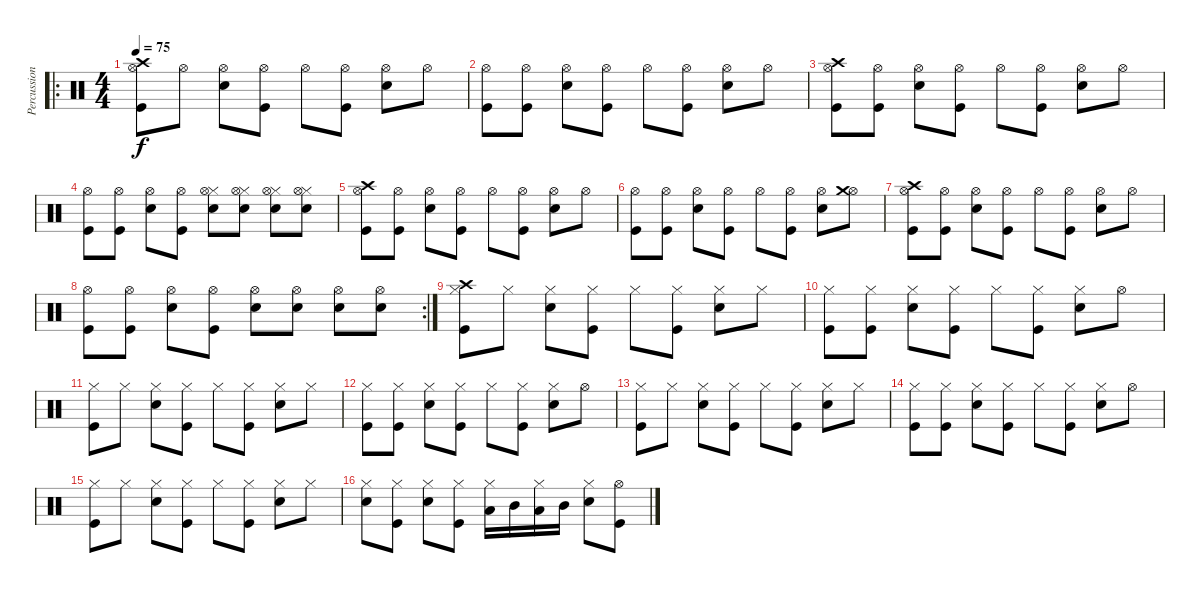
\track ("Percussion" "Percussion") {instrument percussion}
\staff {score}
\articulation defaults
\ro
\ts (4 4)
\tempo 75
\clef neutral
\ks c
("Hi-Hat (open)" "Kick (hit)" "Crash high (hit)").8{dy f} "Hi-Hat (open)".8 ("Hi-Hat (open)" "Electric Snare (hit)").8 ("Hi-Hat (open)" "Kick (hit)").8 "Hi-Hat (open)".8 ("Hi-Hat (open)" "Kick (hit)").8 ("Hi-Hat (open)" "Electric Snare (hit)").8 "Hi-Hat (open)".8 |
("Hi-Hat (open)" "Kick (hit)").8 ("Hi-Hat (open)" "Kick (hit)").8 ("Hi-Hat (open)" "Electric Snare (hit)").8 ("Hi-Hat (open)" "Kick (hit)").8 "Hi-Hat (open)".8 ("Hi-Hat (open)" "Kick (hit)").8 ("Hi-Hat (open)" "Electric Snare (hit)").8 "Hi-Hat (open)".8 |
("Hi-Hat (open)" "Kick (hit)" "Crash high (hit)").8 ("Hi-Hat (open)" "Kick (hit)").8 ("Hi-Hat (open)" "Electric Snare (hit)").8 ("Hi-Hat (open)" "Kick (hit)").8 "Hi-Hat (open)".8 ("Hi-Hat (open)" "Kick (hit)").8 ("Hi-Hat (open)" "Electric Snare (hit)").8 "Hi-Hat (open)".8 |
("Hi-Hat (open)" "Kick (hit)").8 ("Hi-Hat (open)" "Kick (hit)").8 ("Hi-Hat (open)" "Electric Snare (hit)").8 ("Hi-Hat (open)" "Kick (hit)").8 ("Hi-Hat (closed)" "Electric Snare (hit)" "Hi-Hat (open)").8 ("Hi-Hat (closed)" "Electric Snare (hit)" "Hi-Hat (open)").8 ("Hi-Hat (closed)" "Electric Snare (hit)" "Hi-Hat (open)").8 ("Hi-Hat (closed)" "Electric Snare (hit)" "Hi-Hat (open)").8 |
("Hi-Hat (open)" "Kick (hit)" "Crash high (hit)").8 ("Hi-Hat (open)" "Kick (hit)").8 ("Hi-Hat (open)" "Electric Snare (hit)").8 ("Hi-Hat (open)" "Kick (hit)").8 "Hi-Hat (open)".8 ("Hi-Hat (open)" "Kick (hit)").8 ("Hi-Hat (open)" "Electric Snare (hit)").8 "Hi-Hat (open)".8 |
("Hi-Hat (open)" "Kick (hit)").8 ("Hi-Hat (open)" "Kick (hit)").8 ("Hi-Hat (open)" "Electric Snare (hit)").8 ("Hi-Hat (open)" "Kick (hit)").8 "Hi-Hat (open)".8 ("Hi-Hat (open)" "Kick (hit)").8 ("Hi-Hat (open)" "Electric Snare (hit)").8 ("Hi-Hat (open)" "Crash medium (hit)").8 |
("Hi-Hat (open)" "Kick (hit)" "Crash high (hit)").8 ("Hi-Hat (open)" "Kick (hit)").8 ("Hi-Hat (open)" "Electric Snare (hit)").8 ("Hi-Hat (open)" "Kick (hit)").8 "Hi-Hat (open)".8 ("Hi-Hat (open)" "Kick (hit)").8 ("Hi-Hat (open)" "Electric Snare (hit)").8 "Hi-Hat (open)".8 |
\rc 2
("Hi-Hat (open)" "Kick (hit)").8 ("Hi-Hat (open)" "Kick (hit)").8 ("Hi-Hat (open)" "Electric Snare (hit)").8 ("Hi-Hat (open)" "Kick (hit)").8 ("Hi-Hat (open)" "Electric Snare (hit)").8 ("Hi-Hat (open)" "Electric Snare (hit)").8 ("Hi-Hat (open)" "Electric Snare (hit)").8 ("Hi-Hat (open)" "Electric Snare (hit)").8 |
("Hi-Hat (closed)" "Kick (hit)" "Crash high (hit)").8 "Hi-Hat (closed)".8 ("Hi-Hat (closed)" "Electric Snare (hit)").8 ("Hi-Hat (closed)" "Kick (hit)").8 "Hi-Hat (closed)".8 ("Hi-Hat (closed)" "Kick (hit)").8 ("Hi-Hat (closed)" "Electric Snare (hit)").8 "Hi-Hat (closed)".8 |
("Hi-Hat (closed)" "Kick (hit)").8 ("Hi-Hat (closed)" "Kick (hit)").8 ("Hi-Hat (closed)" "Electric Snare (hit)").8 ("Hi-Hat (closed)" "Kick (hit)").8 "Hi-Hat (closed)".8 ("Hi-Hat (closed)" "Kick (hit)").8 ("Hi-Hat (closed)" "Electric Snare (hit)").8 "Hi-Hat (open)".8 |
("Hi-Hat (closed)" "Kick (hit)").8 "Hi-Hat (closed)".8 ("Hi-Hat (closed)" "Electric Snare (hit)").8 ("Hi-Hat (closed)" "Kick (hit)").8 "Hi-Hat (closed)".8 ("Hi-Hat (closed)" "Kick (hit)").8 ("Hi-Hat (closed)" "Electric Snare (hit)").8 "Hi-Hat (closed)".8 |
("Hi-Hat (closed)" "Kick (hit)").8 ("Hi-Hat (closed)" "Kick (hit)").8 ("Hi-Hat (closed)" "Electric Snare (hit)").8 ("Hi-Hat (closed)" "Kick (hit)").8 "Hi-Hat (closed)".8 ("Hi-Hat (closed)" "Kick (hit)").8 ("Hi-Hat (closed)" "Electric Snare (hit)").8 "Hi-Hat (open)".8 |
("Hi-Hat (closed)" "Kick (hit)").8 "Hi-Hat (closed)".8 ("Hi-Hat (closed)" "Electric Snare (hit)").8 ("Hi-Hat (closed)" "Kick (hit)").8 "Hi-Hat (closed)".8 ("Hi-Hat (closed)" "Kick (hit)").8 ("Hi-Hat (closed)" "Electric Snare (hit)").8 "Hi-Hat (closed)".8 |
("Hi-Hat (closed)" "Kick (hit)").8 ("Hi-Hat (closed)" "Kick (hit)").8 ("Hi-Hat (closed)" "Electric Snare (hit)").8 ("Hi-Hat (closed)" "Kick (hit)").8 "Hi-Hat (closed)".8 ("Hi-Hat (closed)" "Kick (hit)").8 ("Hi-Hat (closed)" "Electric Snare (hit)").8 "Hi-Hat (open)".8 |
("Hi-Hat (closed)" "Kick (hit)").8 "Hi-Hat (closed)".8 ("Hi-Hat (closed)" "Electric Snare (hit)").8 ("Hi-Hat (closed)" "Kick (hit)").8 "Hi-Hat (closed)".8 ("Hi-Hat (closed)" "Kick (hit)").8 ("Hi-Hat (closed)" "Electric Snare (hit)").8 "Hi-Hat (closed)".8 |
("Hi-Hat (closed)" "Electric Snare (hit)").8 ("Hi-Hat (closed)" "Kick (hit)").8 ("Hi-Hat (closed)" "Electric Snare (hit)").8 ("Hi-Hat (closed)" "Kick (hit)").8 ("Hi-Hat (closed)" "Low Tom (hit)").16 "Mid Tom (hit)".16 ("Hi-Hat (closed)" "Low Tom (hit)").16 "Mid Tom (hit)".16 ("Hi-Hat (closed)" "Electric Snare (hit)").8 ("Hi-Hat (open)" "Kick (hit)").8
